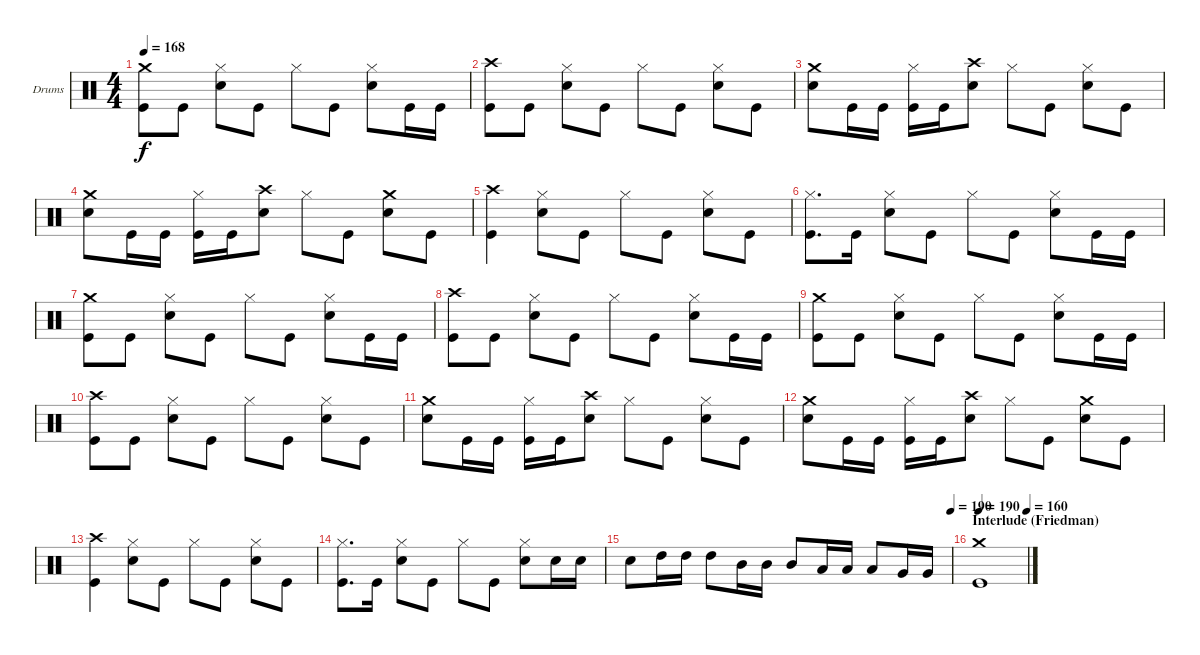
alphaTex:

\bracketExtendMode groupsimilarinstruments
\firstSystemTrackNameOrientation horizontal
\otherSystemsTrackNameOrientation horizontal
\track ("Drumkit" "Drums") {instrument percussion}
\staff {score}
\articulation defaults
\ts (4 4)
\tempo 168
\clef neutral
\ks c
("Crash medium (hit)" "Kick (hit)").8{dy f} "Kick (hit)".8 ("Hi-Hat (closed)" "Snare (hit) 2").8 "Kick (hit)".8 "Hi-Hat (closed)".8 "Kick (hit)".8 ("Hi-Hat (closed)" "Snare (hit) 2").8 "Kick (hit)".16 "Kick (hit)".16 |
("Crash high (hit)" "Kick (hit)").8 "Kick (hit)".8 ("Hi-Hat (closed)" "Snare (hit) 2").8 "Kick (hit)".8 "Hi-Hat (closed)".8 "Kick (hit)".8 ("Hi-Hat (closed)" "Snare (hit) 2").8 "Kick (hit)".8 |
("Crash medium (hit)" "Snare (hit) 2").8 "Kick (hit)".16 "Kick (hit)".16 ("Hi-Hat (closed)" "Kick (hit)").16 "Kick (hit)".16 ("Crash high (hit)" "Snare (hit) 2").8 "Hi-Hat (closed)".8 "Kick (hit)".8 ("Hi-Hat (closed)" "Snare (hit) 2").8 "Kick (hit)".8 |
("Crash medium (hit)" "Snare (hit) 2").8 "Kick (hit)".16 "Kick (hit)".16 ("Hi-Hat (closed)" "Kick (hit)").16 "Kick (hit)".16 ("Crash high (hit)" "Snare (hit) 2").8 "Hi-Hat (closed)".8 "Kick (hit)".8 ("Crash medium (hit)" "Snare (hit) 2").8 "Kick (hit)".8 |
("Crash high (hit)" "Kick (hit)").4 ("Hi-Hat (closed)" "Snare (hit) 2").8 "Kick (hit)".8 "Hi-Hat (closed)".8 "Kick (hit)".8 ("Hi-Hat (closed)" "Snare (hit) 2").8 "Kick (hit)".8 |
("Hi-Hat (closed)" "Kick (hit)").8{d} "Kick (hit)".16 ("Hi-Hat (closed)" "Snare (hit) 2").8 "Kick (hit)".8 "Hi-Hat (closed)".8 "Kick (hit)".8 ("Hi-Hat (closed)" "Snare (hit) 2").8 "Kick (hit)".16 "Kick (hit)".16 |
("Crash medium (hit)" "Kick (hit)").8 "Kick (hit)".8 ("Hi-Hat (closed)" "Snare (hit) 2").8 "Kick (hit)".8 "Hi-Hat (closed)".8 "Kick (hit)".8 ("Hi-Hat (closed)" "Snare (hit) 2").8 "Kick (hit)".16 "Kick (hit)".16 |
("Crash high (hit)" "Kick (hit)").8 "Kick (hit)".8 ("Hi-Hat (closed)" "Snare (hit) 2").8 "Kick (hit)".8 "Hi-Hat (closed)".8 "Kick (hit)".8 ("Hi-Hat (closed)" "Snare (hit) 2").8 "Kick (hit)".16 "Kick (hit)".16 |
("Crash medium (hit)" "Kick (hit)").8 "Kick (hit)".8 ("Hi-Hat (closed)" "Snare (hit) 2").8 "Kick (hit)".8 "Hi-Hat (closed)".8 "Kick (hit)".8 ("Hi-Hat (closed)" "Snare (hit) 2").8 "Kick (hit)".16 "Kick (hit)".16 |
("Crash high (hit)" "Kick (hit)").8 "Kick (hit)".8 ("Hi-Hat (closed)" "Snare (hit) 2").8 "Kick (hit)".8 "Hi-Hat (closed)".8 "Kick (hit)".8 ("Hi-Hat (closed)" "Snare (hit) 2").8 "Kick (hit)".8 |
("Crash medium (hit)" "Snare (hit) 2").8 "Kick (hit)".16 "Kick (hit)".16 ("Hi-Hat (closed)" "Kick (hit)").16 "Kick (hit)".16 ("Crash high (hit)" "Snare (hit) 2").8 "Hi-Hat (closed)".8 "Kick (hit)".8 ("Hi-Hat (closed)" "Snare (hit) 2").8 "Kick (hit)".8 |
("Crash medium (hit)" "Snare (hit) 2").8 "Kick (hit)".16 "Kick (hit)".16 ("Hi-Hat (closed)" "Kick (hit)").16 "Kick (hit)".16 ("Crash high (hit)" "Snare (hit) 2").8 "Hi-Hat (closed)".8 "Kick (hit)".8 ("Crash medium (hit)" "Snare (hit) 2").8 "Kick (hit)".8 |
("Crash high (hit)" "Kick (hit)").4 ("Hi-Hat (closed)" "Snare (hit) 2").8 "Kick (hit)".8 "Hi-Hat (closed)".8 "Kick (hit)".8 ("Hi-Hat (closed)" "Snare (hit) 2").8 "Kick (hit)".8 |
("Hi-Hat (closed)" "Kick (hit)").8{d} "Kick (hit)".16 ("Hi-Hat (closed)" "Snare (hit) 2").8 "Kick (hit)".8 "Hi-Hat (closed)".8 "Kick (hit)".8 ("Hi-Hat (closed)" "Snare (hit) 2").8 "Snare (hit) 2".16 "Snare (hit) 2".16 |
\tempo (190 1)
"Snare (hit) 2".8 "High Tom (hit)".16 "High Tom (hit)".16 "High Tom (hit)".8 "Mid Tom (hit)".16 "Mid Tom (hit)".16 "Mid Tom (hit)".8 "Low Tom (hit)".16 "Low Tom (hit)".16 "Low Tom (hit)".8 "Very Low Tom (hit)".16 "Very Low Tom (hit)".16 |
\section ("" "Interlude (Friedman)")
\tempo 190
\tempo (160 1)
("Crash medium (hit)" "Kick (hit)").1
